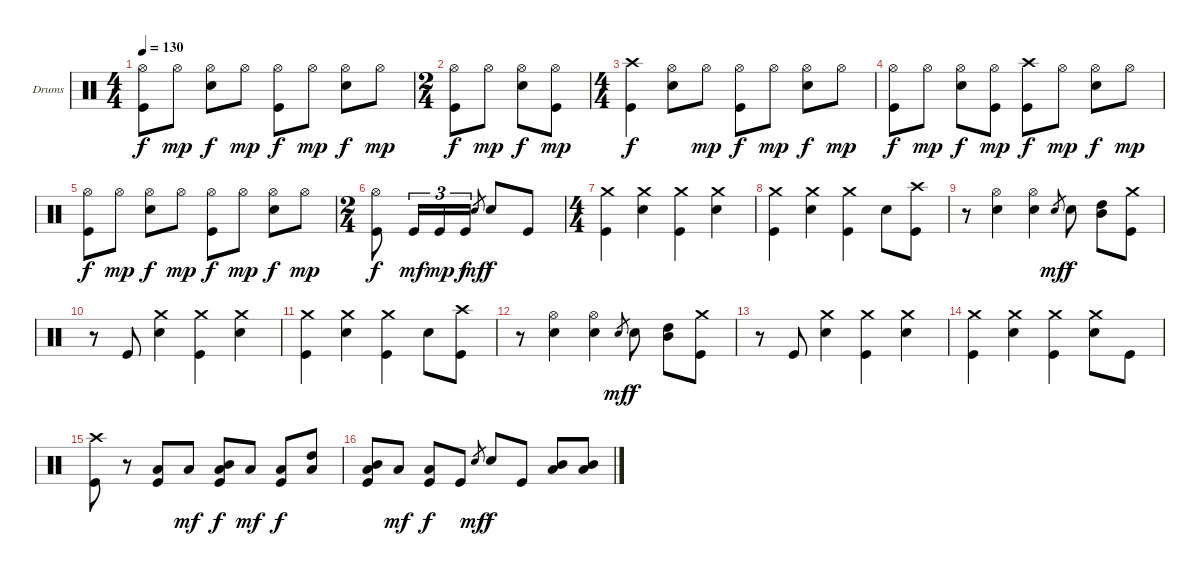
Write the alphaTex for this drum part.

\bracketExtendMode groupsimilarinstruments
\firstSystemTrackNameOrientation horizontal
\otherSystemsTrackNameOrientation horizontal
\track ("Drumkit" "Drums") {instrument percussion}
\staff {score}
\articulation defaults
\ts (4 4)
\tempo 130
\clef neutral
\ks c
("Hi-Hat (open)" "Kick (hit)").8{dy f} "Hi-Hat (open)".8{dy mp} ("Hi-Hat (open)" "Snare (hit) 2").8{dy f} "Hi-Hat (open)".8{dy mp} ("Hi-Hat (open)" "Kick (hit)").8{dy f} "Hi-Hat (open)".8{dy mp} ("Hi-Hat (open)" "Snare (hit) 2").8{dy f} "Hi-Hat (open)".8{dy mp} |
\ts (2 4)
\beaming (8 2 2 2 2)
("Hi-Hat (open)" "Kick (hit)").8{dy f} "Hi-Hat (open)".8{dy mp} ("Hi-Hat (open)" "Snare (hit) 2").8{dy f} ("Hi-Hat (open)" "Kick (hit)").8{dy mp} |
\ts (4 4)
\beaming (8 2 2 2 2)
("Crash high (hit)" "Kick (hit)").4{dy f} ("Hi-Hat (open)" "Snare (hit) 2").8 "Hi-Hat (open)".8{dy mp} ("Hi-Hat (open)" "Kick (hit)").8{dy f} "Hi-Hat (open)".8{dy mp} ("Hi-Hat (open)" "Snare (hit) 2").8{dy f} "Hi-Hat (open)".8{dy mp} |
("Hi-Hat (open)" "Kick (hit)").8{dy f} "Hi-Hat (open)".8{dy mp} ("Hi-Hat (open)" "Snare (hit) 2").8{dy f} ("Hi-Hat (open)" "Kick (hit)").8{dy mp} ("Crash high (hit)" "Kick (hit)").8{dy f} "Hi-Hat (open)".8{dy mp} ("Hi-Hat (open)" "Snare (hit) 2").8{dy f} "Hi-Hat (open)".8{dy mp} |
("Hi-Hat (open)" "Kick (hit)").8{dy f} "Hi-Hat (open)".8{dy mp} ("Hi-Hat (open)" "Snare (hit) 2").8{dy f} "Hi-Hat (open)".8{dy mp} ("Hi-Hat (open)" "Kick (hit)").8{dy f} "Hi-Hat (open)".8{dy mp} ("Hi-Hat (open)" "Snare (hit) 2").8{dy f} "Hi-Hat (open)".8{dy mp} |
\ts (2 4)
\beaming (8 2 2 2 2)
("Hi-Hat (open)" "Kick (hit)").8{dy f} "Kick (hit)".16{tu (3 2) dy mf} "Kick (hit)".16{tu (3 2) dy mp} "Kick (hit)".16{tu (3 2) dy f} "Snare (hit) 2".8{gr dy mf} "Snare (hit) 2".8{dy f} "Kick (hit)".8 |
\ts (4 4)
\beaming (8 2 2 2 2)
("Crash medium (hit)" "Kick (hit)").4 ("Crash medium (hit)" "Snare (hit) 2").4 ("Crash medium (hit)" "Kick (hit)").4 ("Crash medium (hit)" "Snare (hit) 2").4 |
("Crash medium (hit)" "Kick (hit)").4 ("Crash medium (hit)" "Snare (hit) 2").4 ("Crash medium (hit)" "Kick (hit)").4 "Snare (hit) 2".8 ("Crash high (hit)" "Kick (hit)").8 |
r.8 ("Hi-Hat (open)" "Snare (hit) 2").4 ("Hi-Hat (open)" "Snare (hit) 2").4 "Snare (hit) 2".8{gr dy mf} "Snare (hit) 2".8{dy f} ("High Tom (hit)" "Mid Tom (hit)").8 ("Crash medium (hit)" "Kick (hit)").8 |
r.8 "Kick (hit)".8 ("Crash medium (hit)" "Snare (hit) 2").4 ("Crash medium (hit)" "Kick (hit)").4 ("Crash medium (hit)" "Snare (hit) 2").4 |
("Crash medium (hit)" "Kick (hit)").4 ("Crash medium (hit)" "Snare (hit) 2").4 ("Crash medium (hit)" "Kick (hit)").4 "Snare (hit) 2".8 ("Crash high (hit)" "Kick (hit)").8 |
r.8 ("Hi-Hat (open)" "Snare (hit) 2").4 ("Hi-Hat (open)" "Snare (hit) 2").4 "Snare (hit) 2".8{gr dy mf} "Snare (hit) 2".8{dy f} ("High Tom (hit)" "Mid Tom (hit)").8 ("Crash medium (hit)" "Kick (hit)").8 |
r.8 "Kick (hit)".8 ("Crash medium (hit)" "Snare (hit) 2").4 ("Crash medium (hit)" "Kick (hit)").4 ("Crash medium (hit)" "Snare (hit) 2").4 |
("Crash medium (hit)" "Kick (hit)").4 ("Crash medium (hit)" "Snare (hit) 2").4 ("Crash medium (hit)" "Kick (hit)").4 ("Crash medium (hit)" "Snare (hit) 2").8 "Kick (hit)".8 |
("Crash high (hit)" "Kick (hit)").8 r.8 ("Low Tom (hit)" "Kick (hit)").8 "Low Tom (hit)".8{dy mf} ("Mid Tom (hit)" "Low Tom (hit)" "Kick (hit)").8{dy f} "Low Tom (hit)".8{dy mf} ("Low Tom (hit)" "Kick (hit)").8{dy f} ("High Tom (hit)" "Low Tom (hit)").8 |
("Mid Tom (hit)" "Low Tom (hit)" "Kick (hit)").8 "Low Tom (hit)".8{dy mf} ("Low Tom (hit)" "Kick (hit)").8{dy f} "Kick (hit)".8 "Snare (hit) 2".8{gr dy mf} "Snare (hit) 2".8{dy f} "Kick (hit)".8 ("Mid Tom (hit)" "Low Tom (hit)").8 ("Mid Tom (hit)" "Low Tom (hit)").8
